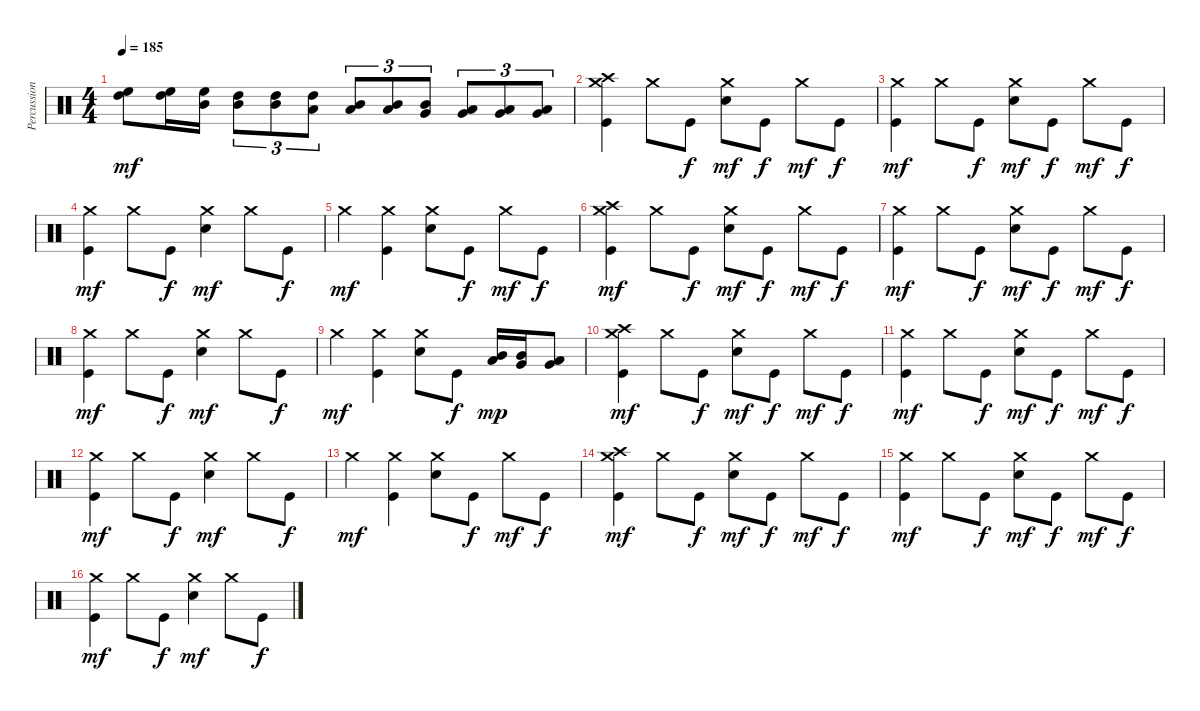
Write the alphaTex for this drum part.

\track ("Percussions" "Percussion") {instrument percussion}
\staff {score}
\articulation defaults
\ts (4 4)
\tempo 185
\clef neutral
\ks c
("High Tom (hit)" "High Floor Tom (hit)").8{dy mf} ("High Tom (hit)" "High Floor Tom (hit)").16 ("Mid Tom (hit)" "High Floor Tom (hit)").16 ("Mid Tom (hit)" "High Tom (hit)").8{tu (3 2)} ("Mid Tom (hit)" "High Tom (hit)").8{tu (3 2)} ("Low Tom (hit)" "High Tom (hit)").8{tu (3 2)} ("Low Tom (hit)" "Mid Tom (hit)").8{tu (3 2)} ("Low Tom (hit)" "Mid Tom (hit)").8{tu (3 2)} ("Very Low Tom (hit)" "Mid Tom (hit)").8{tu (3 2)} ("Very Low Tom (hit)" "Low Tom (hit)").8{tu (3 2)} ("Very Low Tom (hit)" "Low Tom (hit)").8{tu (3 2)} ("Low Floor Tom (hit)" "Very Low Tom (hit)").8{tu (3 2)} |
("Kick (hit)" "Crash medium (hit)" "Crash high (hit)").4 "Crash medium (hit)".8 "Kick (hit)".8{dy f} ("Electric Snare (hit)" "Crash medium (hit)").8{dy mf} "Kick (hit)".8{dy f} "Crash medium (hit)".8{dy mf} "Kick (hit)".8{dy f} |
("Kick (hit)" "Crash medium (hit)").4{dy mf} "Crash medium (hit)".8 "Kick (hit)".8{dy f} ("Electric Snare (hit)" "Crash medium (hit)").8{dy mf} "Kick (hit)".8{dy f} "Crash medium (hit)".8{dy mf} "Kick (hit)".8{dy f} |
("Kick (hit)" "Crash medium (hit)").4{dy mf} "Crash medium (hit)".8 "Kick (hit)".8{dy f} ("Electric Snare (hit)" "Crash medium (hit)").4{dy mf} "Crash medium (hit)".8 "Kick (hit)".8{dy f} |
"Crash medium (hit)".4{dy mf} ("Kick (hit)" "Crash medium (hit)").4 ("Electric Snare (hit)" "Crash medium (hit)").8 "Kick (hit)".8{dy f} "Crash medium (hit)".8{dy mf} "Kick (hit)".8{dy f} |
("Kick (hit)" "Crash medium (hit)" "Crash high (hit)").4{dy mf} "Crash medium (hit)".8 "Kick (hit)".8{dy f} ("Electric Snare (hit)" "Crash medium (hit)").8{dy mf} "Kick (hit)".8{dy f} "Crash medium (hit)".8{dy mf} "Kick (hit)".8{dy f} |
("Kick (hit)" "Crash medium (hit)").4{dy mf} "Crash medium (hit)".8 "Kick (hit)".8{dy f} ("Electric Snare (hit)" "Crash medium (hit)").8{dy mf} "Kick (hit)".8{dy f} "Crash medium (hit)".8{dy mf} "Kick (hit)".8{dy f} |
("Kick (hit)" "Crash medium (hit)").4{dy mf} "Crash medium (hit)".8 "Kick (hit)".8{dy f} ("Electric Snare (hit)" "Crash medium (hit)").4{dy mf} "Crash medium (hit)".8 "Kick (hit)".8{dy f} |
"Crash medium (hit)".4{dy mf} ("Kick (hit)" "Crash medium (hit)").4 ("Electric Snare (hit)" "Crash medium (hit)").8 "Kick (hit)".8{dy f} ("Low Tom (hit)" "Mid Tom (hit)").16{dy mp} ("Very Low Tom (hit)" "Mid Tom (hit)").16 ("Very Low Tom (hit)" "Low Tom (hit)").8 |
("Kick (hit)" "Crash medium (hit)" "Crash high (hit)").4{dy mf} "Crash medium (hit)".8 "Kick (hit)".8{dy f} ("Electric Snare (hit)" "Crash medium (hit)").8{dy mf} "Kick (hit)".8{dy f} "Crash medium (hit)".8{dy mf} "Kick (hit)".8{dy f} |
("Kick (hit)" "Crash medium (hit)").4{dy mf} "Crash medium (hit)".8 "Kick (hit)".8{dy f} ("Electric Snare (hit)" "Crash medium (hit)").8{dy mf} "Kick (hit)".8{dy f} "Crash medium (hit)".8{dy mf} "Kick (hit)".8{dy f} |
("Kick (hit)" "Crash medium (hit)").4{dy mf} "Crash medium (hit)".8 "Kick (hit)".8{dy f} ("Electric Snare (hit)" "Crash medium (hit)").4{dy mf} "Crash medium (hit)".8 "Kick (hit)".8{dy f} |
"Crash medium (hit)".4{dy mf} ("Kick (hit)" "Crash medium (hit)").4 ("Electric Snare (hit)" "Crash medium (hit)").8 "Kick (hit)".8{dy f} "Crash medium (hit)".8{dy mf} "Kick (hit)".8{dy f} |
("Kick (hit)" "Crash medium (hit)" "Crash high (hit)").4{dy mf} "Crash medium (hit)".8 "Kick (hit)".8{dy f} ("Electric Snare (hit)" "Crash medium (hit)").8{dy mf} "Kick (hit)".8{dy f} "Crash medium (hit)".8{dy mf} "Kick (hit)".8{dy f} |
("Kick (hit)" "Crash medium (hit)").4{dy mf} "Crash medium (hit)".8 "Kick (hit)".8{dy f} ("Electric Snare (hit)" "Crash medium (hit)").8{dy mf} "Kick (hit)".8{dy f} "Crash medium (hit)".8{dy mf} "Kick (hit)".8{dy f} |
("Kick (hit)" "Crash medium (hit)").4{dy mf} "Crash medium (hit)".8 "Kick (hit)".8{dy f} ("Electric Snare (hit)" "Crash medium (hit)").4{dy mf} "Crash medium (hit)".8 "Kick (hit)".8{dy f}
